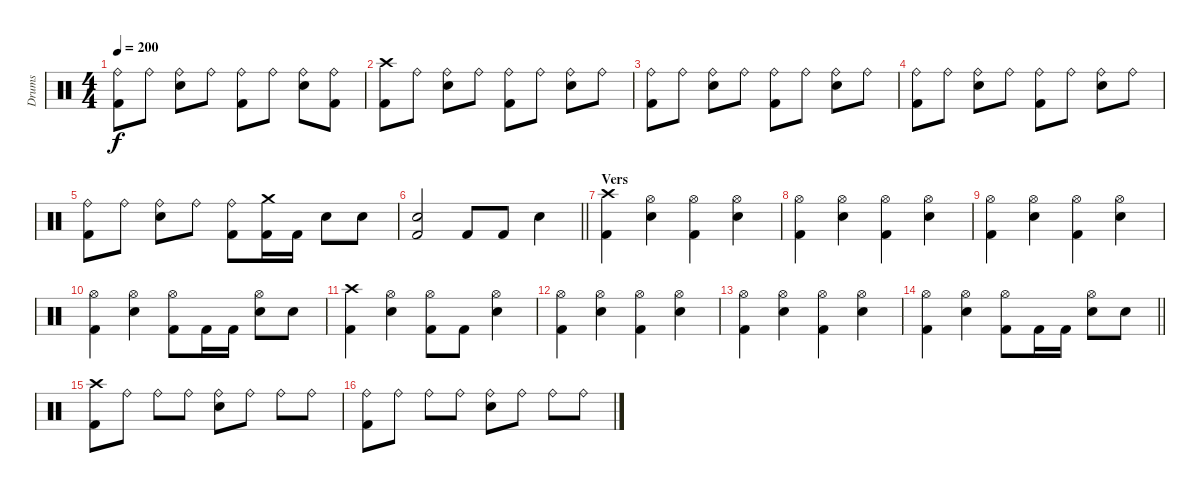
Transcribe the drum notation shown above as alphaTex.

\track ("Drums" "Drums") {instrument percussion}
\staff {score}
\articulation defaults
\ts (4 4)
\tempo 200
\clef neutral
\ks c
("Ride (bell)" "Kick (hit) 2").8{dy f} "Ride (bell)".8 ("Ride (bell)" "Snare (hit) 2").8 "Ride (bell)".8 ("Ride (bell)" "Kick (hit) 2").8 "Ride (bell)".8 ("Ride (bell)" "Snare (hit) 2").8 ("Ride (bell)" "Kick (hit) 2").8 |
("Crash high (hit)" "Kick (hit) 2").8 "Ride (bell)".8 ("Ride (bell)" "Snare (hit) 2").8 "Ride (bell)".8 ("Ride (bell)" "Kick (hit) 2").8 "Ride (bell)".8 ("Ride (bell)" "Snare (hit) 2").8 "Ride (bell)".8 |
("Ride (bell)" "Kick (hit) 2").8 "Ride (bell)".8 ("Ride (bell)" "Snare (hit) 2").8 "Ride (bell)".8 ("Ride (bell)" "Kick (hit) 2").8 "Ride (bell)".8 ("Ride (bell)" "Snare (hit) 2").8 "Ride (bell)".8 |
("Ride (bell)" "Kick (hit) 2").8 "Ride (bell)".8 ("Ride (bell)" "Snare (hit) 2").8 "Ride (bell)".8 ("Ride (bell)" "Kick (hit) 2").8 "Ride (bell)".8 ("Ride (bell)" "Snare (hit) 2").8 "Ride (bell)".8 |
("Ride (bell)" "Kick (hit) 2").8 "Ride (bell)".8 ("Ride (bell)" "Snare (hit) 2").8 "Ride (bell)".8 ("Ride (bell)" "Kick (hit) 2").8 ("Crash medium (hit)" "Kick (hit) 2").16 "Kick (hit) 2".16 "Snare (hit) 2".8 "Snare (hit) 2".8 |
\barLineRight lightlight
("Snare (hit) 2" "Kick (hit) 2").2 "Kick (hit) 2".8 "Kick (hit) 2".8 "Snare (hit) 2".4 |
\section ("" "Vers")
("Crash high (hit)" "Kick (hit) 2").4 ("Hi-Hat (open)" "Snare (hit) 2").4 ("Hi-Hat (open)" "Kick (hit) 2").4 ("Hi-Hat (open)" "Snare (hit) 2").4 |
("Hi-Hat (open)" "Kick (hit) 2").4 ("Hi-Hat (open)" "Snare (hit) 2").4 ("Hi-Hat (open)" "Kick (hit) 2").4 ("Hi-Hat (open)" "Snare (hit) 2").4 |
("Hi-Hat (open)" "Kick (hit) 2").4 ("Hi-Hat (open)" "Snare (hit) 2").4 ("Hi-Hat (open)" "Kick (hit) 2").4 ("Hi-Hat (open)" "Snare (hit) 2").4 |
("Hi-Hat (open)" "Kick (hit) 2").4 ("Hi-Hat (open)" "Snare (hit) 2").4 ("Hi-Hat (open)" "Kick (hit) 2").8 "Kick (hit) 2".16 "Kick (hit) 2".16 ("Hi-Hat (open)" "Snare (hit) 2").8 "Snare (hit) 2".8 |
("Crash high (hit)" "Kick (hit) 2").4 ("Hi-Hat (open)" "Snare (hit) 2").4 ("Hi-Hat (open)" "Kick (hit) 2").8 "Kick (hit) 2".8 ("Hi-Hat (open)" "Snare (hit) 2").4 |
("Hi-Hat (open)" "Kick (hit) 2").4 ("Hi-Hat (open)" "Snare (hit) 2").4 ("Hi-Hat (open)" "Kick (hit) 2").4 ("Hi-Hat (open)" "Snare (hit) 2").4 |
("Hi-Hat (open)" "Kick (hit) 2").4 ("Hi-Hat (open)" "Snare (hit) 2").4 ("Hi-Hat (open)" "Kick (hit) 2").4 ("Hi-Hat (open)" "Snare (hit) 2").4 |
\barLineRight lightlight
("Hi-Hat (open)" "Kick (hit) 2").4 ("Hi-Hat (open)" "Snare (hit) 2").4 ("Hi-Hat (open)" "Kick (hit) 2").8 "Kick (hit) 2".16 "Kick (hit) 2".16 ("Hi-Hat (open)" "Snare (hit) 2").8 "Snare (hit) 2".8 |
("Crash high (hit)" "Kick (hit) 2").8 "Ride (bell)".8 "Ride (bell)".8 "Ride (bell)".8 ("Ride (bell)" "Snare (hit) 2").8 "Ride (bell)".8 "Ride (bell)".8 "Ride (bell)".8 |
("Ride (bell)" "Kick (hit) 2").8 "Ride (bell)".8 "Ride (bell)".8 "Ride (bell)".8 ("Ride (bell)" "Snare (hit) 2").8 "Ride (bell)".8 "Ride (bell)".8 "Ride (bell)".8
